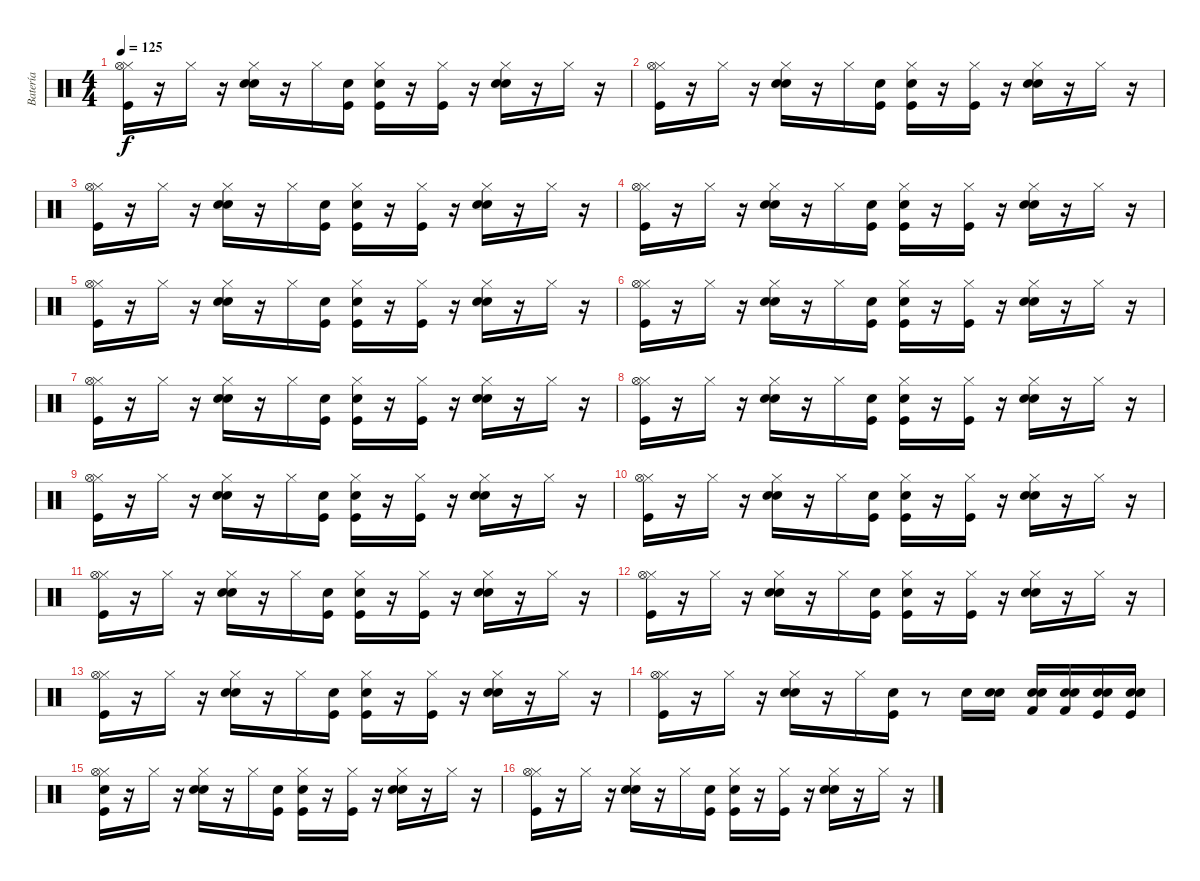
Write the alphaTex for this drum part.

\track ("Batería" "Batería") {instrument percussion}
\staff {score}
\articulation defaults
\ts (4 4)
\tempo 125
\clef neutral
\ks c
("Hi-Hat (closed)" "Kick (hit)" "Hi-Hat (open)").16{dy f} r.16 "Hi-Hat (closed)".16 r.16 ("Snare (hit) 2" "Electric Snare (hit)" "Hi-Hat (closed)").16 r.16 "Hi-Hat (closed)".16 ("Snare (hit)" "Kick (hit)").16 ("Snare (hit)" "Hi-Hat (closed)" "Kick (hit)").16 r.16 ("Hi-Hat (closed)" "Kick (hit)").16 r.16 ("Hi-Hat (closed)" "Snare (hit) 2" "Electric Snare (hit)").16 r.16 "Hi-Hat (closed)".16 r.16 |
("Hi-Hat (closed)" "Kick (hit)" "Hi-Hat (open)").16 r.16 "Hi-Hat (closed)".16 r.16 ("Snare (hit) 2" "Electric Snare (hit)" "Hi-Hat (closed)").16 r.16 "Hi-Hat (closed)".16 ("Snare (hit)" "Kick (hit)").16 ("Snare (hit)" "Hi-Hat (closed)" "Kick (hit)").16 r.16 ("Hi-Hat (closed)" "Kick (hit)").16 r.16 ("Hi-Hat (closed)" "Snare (hit) 2" "Electric Snare (hit)").16 r.16 "Hi-Hat (closed)".16 r.16 |
("Hi-Hat (closed)" "Kick (hit)" "Hi-Hat (open)").16 r.16 "Hi-Hat (closed)".16 r.16 ("Snare (hit) 2" "Electric Snare (hit)" "Hi-Hat (closed)").16 r.16 "Hi-Hat (closed)".16 ("Snare (hit)" "Kick (hit)").16 ("Snare (hit)" "Hi-Hat (closed)" "Kick (hit)").16 r.16 ("Hi-Hat (closed)" "Kick (hit)").16 r.16 ("Hi-Hat (closed)" "Snare (hit) 2" "Electric Snare (hit)").16 r.16 "Hi-Hat (closed)".16 r.16 |
("Hi-Hat (closed)" "Kick (hit)" "Hi-Hat (open)").16 r.16 "Hi-Hat (closed)".16 r.16 ("Snare (hit) 2" "Electric Snare (hit)" "Hi-Hat (closed)").16 r.16 "Hi-Hat (closed)".16 ("Snare (hit)" "Kick (hit)").16 ("Snare (hit)" "Hi-Hat (closed)" "Kick (hit)").16 r.16 ("Hi-Hat (closed)" "Kick (hit)").16 r.16 ("Hi-Hat (closed)" "Snare (hit) 2" "Electric Snare (hit)").16 r.16 "Hi-Hat (closed)".16 r.16 |
("Hi-Hat (closed)" "Kick (hit)" "Hi-Hat (open)").16 r.16 "Hi-Hat (closed)".16 r.16 ("Snare (hit) 2" "Electric Snare (hit)" "Hi-Hat (closed)").16 r.16 "Hi-Hat (closed)".16 ("Snare (hit)" "Kick (hit)").16 ("Snare (hit)" "Hi-Hat (closed)" "Kick (hit)").16 r.16 ("Hi-Hat (closed)" "Kick (hit)").16 r.16 ("Hi-Hat (closed)" "Snare (hit) 2" "Electric Snare (hit)").16 r.16 "Hi-Hat (closed)".16 r.16 |
("Hi-Hat (closed)" "Kick (hit)" "Hi-Hat (open)").16 r.16 "Hi-Hat (closed)".16 r.16 ("Snare (hit) 2" "Electric Snare (hit)" "Hi-Hat (closed)").16 r.16 "Hi-Hat (closed)".16 ("Snare (hit)" "Kick (hit)").16 ("Snare (hit)" "Hi-Hat (closed)" "Kick (hit)").16 r.16 ("Hi-Hat (closed)" "Kick (hit)").16 r.16 ("Hi-Hat (closed)" "Snare (hit) 2" "Electric Snare (hit)").16 r.16 "Hi-Hat (closed)".16 r.16 |
("Hi-Hat (closed)" "Kick (hit)" "Hi-Hat (open)").16 r.16 "Hi-Hat (closed)".16 r.16 ("Snare (hit) 2" "Electric Snare (hit)" "Hi-Hat (closed)").16 r.16 "Hi-Hat (closed)".16 ("Snare (hit)" "Kick (hit)").16 ("Snare (hit)" "Hi-Hat (closed)" "Kick (hit)").16 r.16 ("Hi-Hat (closed)" "Kick (hit)").16 r.16 ("Hi-Hat (closed)" "Snare (hit) 2" "Electric Snare (hit)").16 r.16 "Hi-Hat (closed)".16 r.16 |
("Hi-Hat (closed)" "Kick (hit)" "Hi-Hat (open)").16 r.16 "Hi-Hat (closed)".16 r.16 ("Snare (hit) 2" "Electric Snare (hit)" "Hi-Hat (closed)").16 r.16 "Hi-Hat (closed)".16 ("Snare (hit)" "Kick (hit)").16 ("Snare (hit)" "Hi-Hat (closed)" "Kick (hit)").16 r.16 ("Hi-Hat (closed)" "Kick (hit)").16 r.16 ("Hi-Hat (closed)" "Snare (hit) 2" "Electric Snare (hit)").16 r.16 "Hi-Hat (closed)".16 r.16 |
("Hi-Hat (closed)" "Kick (hit)" "Hi-Hat (open)").16 r.16 "Hi-Hat (closed)".16 r.16 ("Snare (hit) 2" "Electric Snare (hit)" "Hi-Hat (closed)").16 r.16 "Hi-Hat (closed)".16 ("Snare (hit)" "Kick (hit)").16 ("Snare (hit)" "Hi-Hat (closed)" "Kick (hit)").16 r.16 ("Hi-Hat (closed)" "Kick (hit)").16 r.16 ("Hi-Hat (closed)" "Snare (hit) 2" "Electric Snare (hit)").16 r.16 "Hi-Hat (closed)".16 r.16 |
("Hi-Hat (closed)" "Kick (hit)" "Hi-Hat (open)").16 r.16 "Hi-Hat (closed)".16 r.16 ("Snare (hit) 2" "Electric Snare (hit)" "Hi-Hat (closed)").16 r.16 "Hi-Hat (closed)".16 ("Snare (hit)" "Kick (hit)").16 ("Snare (hit)" "Hi-Hat (closed)" "Kick (hit)").16 r.16 ("Hi-Hat (closed)" "Kick (hit)").16 r.16 ("Hi-Hat (closed)" "Snare (hit) 2" "Electric Snare (hit)").16 r.16 "Hi-Hat (closed)".16 r.16 |
("Hi-Hat (closed)" "Kick (hit)" "Hi-Hat (open)").16 r.16 "Hi-Hat (closed)".16 r.16 ("Snare (hit) 2" "Electric Snare (hit)" "Hi-Hat (closed)").16 r.16 "Hi-Hat (closed)".16 ("Snare (hit)" "Kick (hit)").16 ("Snare (hit)" "Hi-Hat (closed)" "Kick (hit)").16 r.16 ("Hi-Hat (closed)" "Kick (hit)").16 r.16 ("Hi-Hat (closed)" "Snare (hit) 2" "Electric Snare (hit)").16 r.16 "Hi-Hat (closed)".16 r.16 |
("Hi-Hat (closed)" "Kick (hit)" "Hi-Hat (open)").16 r.16 "Hi-Hat (closed)".16 r.16 ("Snare (hit) 2" "Electric Snare (hit)" "Hi-Hat (closed)").16 r.16 "Hi-Hat (closed)".16 ("Snare (hit)" "Kick (hit)").16 ("Snare (hit)" "Hi-Hat (closed)" "Kick (hit)").16 r.16 ("Hi-Hat (closed)" "Kick (hit)").16 r.16 ("Hi-Hat (closed)" "Snare (hit) 2" "Electric Snare (hit)").16 r.16 "Hi-Hat (closed)".16 r.16 |
("Hi-Hat (closed)" "Kick (hit)" "Hi-Hat (open)").16 r.16 "Hi-Hat (closed)".16 r.16 ("Snare (hit) 2" "Electric Snare (hit)" "Hi-Hat (closed)").16 r.16 "Hi-Hat (closed)".16 ("Snare (hit)" "Kick (hit)").16 ("Snare (hit)" "Hi-Hat (closed)" "Kick (hit)").16 r.16 ("Hi-Hat (closed)" "Kick (hit)").16 r.16 ("Hi-Hat (closed)" "Snare (hit) 2" "Electric Snare (hit)").16 r.16 "Hi-Hat (closed)".16 r.16 |
("Hi-Hat (closed)" "Kick (hit)" "Hi-Hat (open)").16 r.16 "Hi-Hat (closed)".16 r.16 ("Snare (hit) 2" "Electric Snare (hit)" "Hi-Hat (closed)").16 r.16 "Hi-Hat (closed)".16 ("Snare (hit)" "Kick (hit)").16 r.8 "Electric Snare (hit)".16 ("Snare (hit)" "Electric Snare (hit)").16 ("Snare (hit)" "Kick (hit) 2" "Electric Snare (hit)").16 ("Snare (hit)" "Kick (hit) 2" "Electric Snare (hit)").16 ("Snare (hit)" "Snare (hit) 2" "Kick (hit)").16 ("Snare (hit)" "Snare (hit) 2" "Kick (hit)").16 |
("Snare (hit)" "Hi-Hat (closed)" "Kick (hit)" "Hi-Hat (open)").16 r.16 "Hi-Hat (closed)".16 r.16 ("Snare (hit) 2" "Electric Snare (hit)" "Hi-Hat (closed)").16 r.16 "Hi-Hat (closed)".16 ("Snare (hit)" "Kick (hit)").16 ("Snare (hit)" "Hi-Hat (closed)" "Kick (hit)").16 r.16 ("Hi-Hat (closed)" "Kick (hit)").16 r.16 ("Hi-Hat (closed)" "Snare (hit) 2" "Electric Snare (hit)").16 r.16 "Hi-Hat (closed)".16 r.16 |
("Hi-Hat (closed)" "Kick (hit)" "Hi-Hat (open)").16 r.16 "Hi-Hat (closed)".16 r.16 ("Snare (hit) 2" "Electric Snare (hit)" "Hi-Hat (closed)").16 r.16 "Hi-Hat (closed)".16 ("Snare (hit)" "Kick (hit)").16 ("Snare (hit)" "Hi-Hat (closed)" "Kick (hit)").16 r.16 ("Hi-Hat (closed)" "Kick (hit)").16 r.16 ("Hi-Hat (closed)" "Snare (hit) 2" "Electric Snare (hit)").16 r.16 "Hi-Hat (closed)".16 r.16
